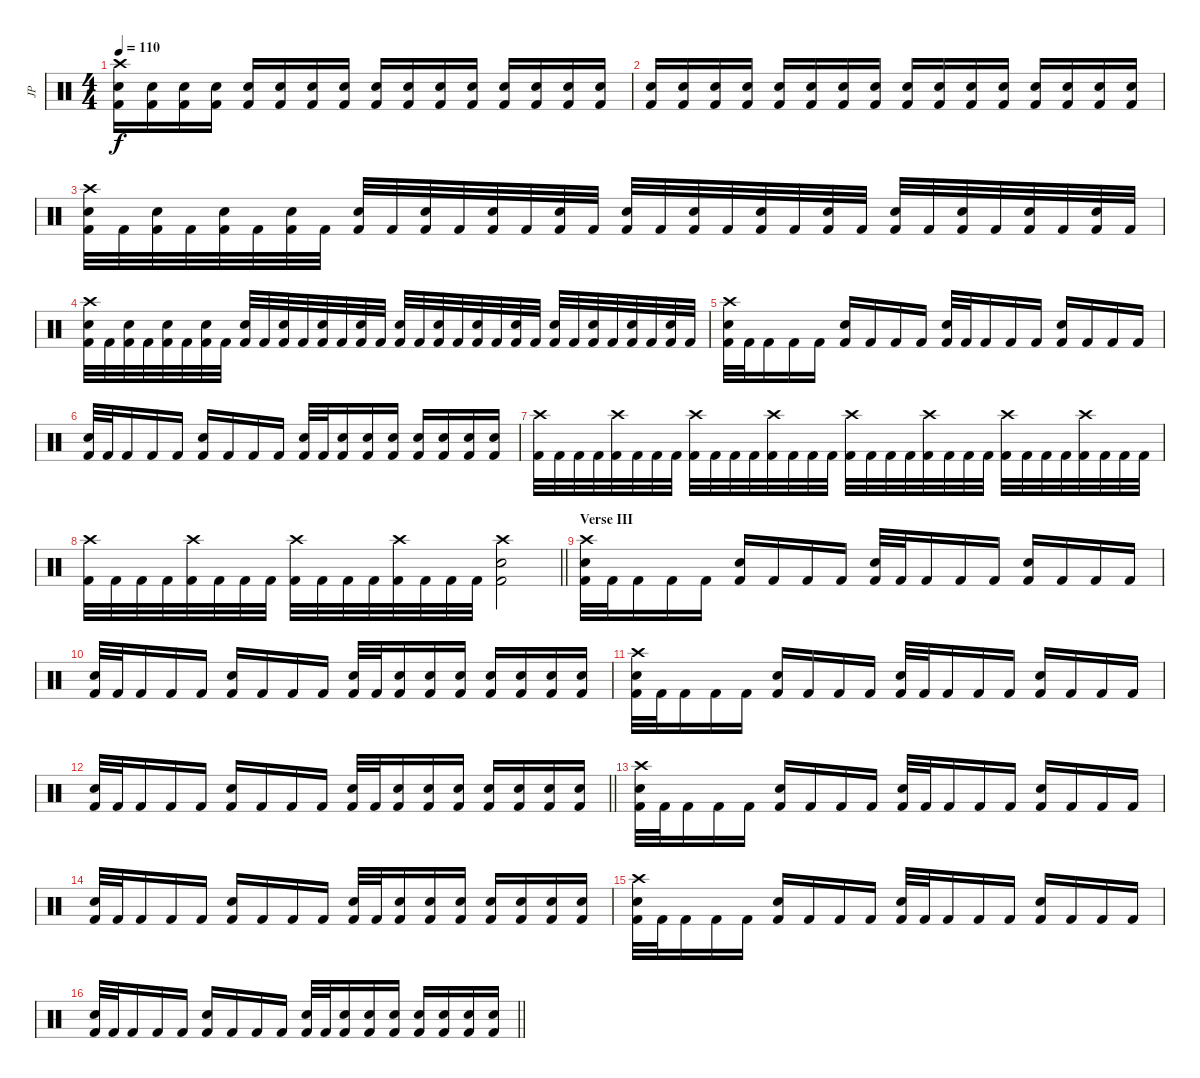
\track ("JP" "JP") {instrument percussion}
\staff {score}
\articulation defaults
\ts (4 4)
\tempo 110
\clef neutral
\ks c
("Crash high (hit)" "Electric Snare (hit)" "Kick (hit) 2").16{dy f} ("Electric Snare (hit)" "Kick (hit) 2").16 ("Electric Snare (hit)" "Kick (hit) 2").16 ("Electric Snare (hit)" "Kick (hit) 2").16 ("Electric Snare (hit)" "Kick (hit) 2").16 ("Electric Snare (hit)" "Kick (hit) 2").16 ("Electric Snare (hit)" "Kick (hit) 2").16 ("Electric Snare (hit)" "Kick (hit) 2").16 ("Electric Snare (hit)" "Kick (hit) 2").16 ("Electric Snare (hit)" "Kick (hit) 2").16 ("Electric Snare (hit)" "Kick (hit) 2").16 ("Electric Snare (hit)" "Kick (hit) 2").16 ("Electric Snare (hit)" "Kick (hit) 2").16 ("Electric Snare (hit)" "Kick (hit) 2").16 ("Electric Snare (hit)" "Kick (hit) 2").16 ("Electric Snare (hit)" "Kick (hit) 2").16 |
("Electric Snare (hit)" "Kick (hit) 2").16 ("Electric Snare (hit)" "Kick (hit) 2").16 ("Electric Snare (hit)" "Kick (hit) 2").16 ("Electric Snare (hit)" "Kick (hit) 2").16 ("Electric Snare (hit)" "Kick (hit) 2").16 ("Electric Snare (hit)" "Kick (hit) 2").16 ("Electric Snare (hit)" "Kick (hit) 2").16 ("Electric Snare (hit)" "Kick (hit) 2").16 ("Electric Snare (hit)" "Kick (hit) 2").16 ("Electric Snare (hit)" "Kick (hit) 2").16 ("Electric Snare (hit)" "Kick (hit) 2").16 ("Electric Snare (hit)" "Kick (hit) 2").16 ("Electric Snare (hit)" "Kick (hit) 2").16 ("Electric Snare (hit)" "Kick (hit) 2").16 ("Electric Snare (hit)" "Kick (hit) 2").16 ("Electric Snare (hit)" "Kick (hit) 2").16 |
("Crash high (hit)" "Electric Snare (hit)" "Kick (hit) 2").32 "Kick (hit) 2".32 ("Electric Snare (hit)" "Kick (hit) 2").32 "Kick (hit) 2".32 ("Electric Snare (hit)" "Kick (hit) 2").32 "Kick (hit) 2".32 ("Electric Snare (hit)" "Kick (hit) 2").32 "Kick (hit) 2".32 ("Electric Snare (hit)" "Kick (hit) 2").32 "Kick (hit) 2".32 ("Electric Snare (hit)" "Kick (hit) 2").32 "Kick (hit) 2".32 ("Electric Snare (hit)" "Kick (hit) 2").32 "Kick (hit) 2".32 ("Electric Snare (hit)" "Kick (hit) 2").32 "Kick (hit) 2".32 ("Electric Snare (hit)" "Kick (hit) 2").32 "Kick (hit) 2".32 ("Electric Snare (hit)" "Kick (hit) 2").32 "Kick (hit) 2".32 ("Electric Snare (hit)" "Kick (hit) 2").32 "Kick (hit) 2".32 ("Electric Snare (hit)" "Kick (hit) 2").32 "Kick (hit) 2".32 ("Electric Snare (hit)" "Kick (hit) 2").32 "Kick (hit) 2".32 ("Electric Snare (hit)" "Kick (hit) 2").32 "Kick (hit) 2".32 ("Electric Snare (hit)" "Kick (hit) 2").32 "Kick (hit) 2".32 ("Electric Snare (hit)" "Kick (hit) 2").32 "Kick (hit) 2".32 |
("Crash high (hit)" "Electric Snare (hit)" "Kick (hit) 2").32 "Kick (hit) 2".32 ("Electric Snare (hit)" "Kick (hit) 2").32 "Kick (hit) 2".32 ("Electric Snare (hit)" "Kick (hit) 2").32 "Kick (hit) 2".32 ("Electric Snare (hit)" "Kick (hit) 2").32 "Kick (hit) 2".32 ("Electric Snare (hit)" "Kick (hit) 2").32 "Kick (hit) 2".32 ("Electric Snare (hit)" "Kick (hit) 2").32 "Kick (hit) 2".32 ("Electric Snare (hit)" "Kick (hit) 2").32 "Kick (hit) 2".32 ("Electric Snare (hit)" "Kick (hit) 2").32 "Kick (hit) 2".32 ("Electric Snare (hit)" "Kick (hit) 2").32 "Kick (hit) 2".32 ("Electric Snare (hit)" "Kick (hit) 2").32 "Kick (hit) 2".32 ("Electric Snare (hit)" "Kick (hit) 2").32 "Kick (hit) 2".32 ("Electric Snare (hit)" "Kick (hit) 2").32 "Kick (hit) 2".32 ("Electric Snare (hit)" "Kick (hit) 2").32 "Kick (hit) 2".32 ("Electric Snare (hit)" "Kick (hit) 2").32 "Kick (hit) 2".32 ("Electric Snare (hit)" "Kick (hit) 2").32 "Kick (hit) 2".32 ("Electric Snare (hit)" "Kick (hit) 2").32 "Kick (hit) 2".32 |
("Crash high (hit)" "Electric Snare (hit)" "Kick (hit) 2").32 "Kick (hit) 2".32 "Kick (hit) 2".16 "Kick (hit) 2".16 "Kick (hit) 2".16 ("Electric Snare (hit)" "Kick (hit) 2").16 "Kick (hit) 2".16 "Kick (hit) 2".16 "Kick (hit) 2".16 ("Electric Snare (hit)" "Kick (hit) 2").32 "Kick (hit) 2".32 "Kick (hit) 2".16 "Kick (hit) 2".16 "Kick (hit) 2".16 ("Electric Snare (hit)" "Kick (hit) 2").16 "Kick (hit) 2".16 "Kick (hit) 2".16 "Kick (hit) 2".16 |
("Electric Snare (hit)" "Kick (hit) 2").32 "Kick (hit) 2".32 "Kick (hit) 2".16 "Kick (hit) 2".16 "Kick (hit) 2".16 ("Electric Snare (hit)" "Kick (hit) 2").16 "Kick (hit) 2".16 "Kick (hit) 2".16 "Kick (hit) 2".16 ("Electric Snare (hit)" "Kick (hit) 2").32 "Kick (hit) 2".32 ("Electric Snare (hit)" "Kick (hit) 2").16 ("Electric Snare (hit)" "Kick (hit) 2").16 ("Electric Snare (hit)" "Kick (hit) 2").16 ("Electric Snare (hit)" "Kick (hit) 2").16 ("Electric Snare (hit)" "Kick (hit) 2").16 ("Electric Snare (hit)" "Kick (hit) 2").16 ("Electric Snare (hit)" "Kick (hit) 2").16 |
("Crash high (hit)" "Kick (hit) 2").32 "Kick (hit) 2".32 "Kick (hit) 2".32 "Kick (hit) 2".32 ("Crash high (hit)" "Kick (hit) 2").32 "Kick (hit) 2".32 "Kick (hit) 2".32 "Kick (hit) 2".32 ("Crash high (hit)" "Kick (hit) 2").32 "Kick (hit) 2".32 "Kick (hit) 2".32 "Kick (hit) 2".32 ("Crash high (hit)" "Kick (hit) 2").32 "Kick (hit) 2".32 "Kick (hit) 2".32 "Kick (hit) 2".32 ("Crash high (hit)" "Kick (hit) 2").32 "Kick (hit) 2".32 "Kick (hit) 2".32 "Kick (hit) 2".32 ("Crash high (hit)" "Kick (hit) 2").32 "Kick (hit) 2".32 "Kick (hit) 2".32 "Kick (hit) 2".32 ("Crash high (hit)" "Kick (hit) 2").32 "Kick (hit) 2".32 "Kick (hit) 2".32 "Kick (hit) 2".32 ("Crash high (hit)" "Kick (hit) 2").32 "Kick (hit) 2".32 "Kick (hit) 2".32 "Kick (hit) 2".32 |
\barLineRight lightlight
("Crash high (hit)" "Kick (hit) 2").32 "Kick (hit) 2".32 "Kick (hit) 2".32 "Kick (hit) 2".32 ("Crash high (hit)" "Kick (hit) 2").32 "Kick (hit) 2".32 "Kick (hit) 2".32 "Kick (hit) 2".32 ("Crash high (hit)" "Kick (hit) 2").32 "Kick (hit) 2".32 "Kick (hit) 2".32 "Kick (hit) 2".32 ("Crash high (hit)" "Kick (hit) 2").32 "Kick (hit) 2".32 "Kick (hit) 2".32 "Kick (hit) 2".32 ("Crash high (hit)" "Electric Snare (hit)" "Kick (hit) 2").2 |
\section ("" "Verse III")
("Crash high (hit)" "Electric Snare (hit)" "Kick (hit) 2").32 "Kick (hit) 2".32 "Kick (hit) 2".16 "Kick (hit) 2".16 "Kick (hit) 2".16 ("Electric Snare (hit)" "Kick (hit) 2").16 "Kick (hit) 2".16 "Kick (hit) 2".16 "Kick (hit) 2".16 ("Electric Snare (hit)" "Kick (hit) 2").32 "Kick (hit) 2".32 "Kick (hit) 2".16 "Kick (hit) 2".16 "Kick (hit) 2".16 ("Electric Snare (hit)" "Kick (hit) 2").16 "Kick (hit) 2".16 "Kick (hit) 2".16 "Kick (hit) 2".16 |
("Electric Snare (hit)" "Kick (hit) 2").32 "Kick (hit) 2".32 "Kick (hit) 2".16 "Kick (hit) 2".16 "Kick (hit) 2".16 ("Electric Snare (hit)" "Kick (hit) 2").16 "Kick (hit) 2".16 "Kick (hit) 2".16 "Kick (hit) 2".16 ("Electric Snare (hit)" "Kick (hit) 2").32 "Kick (hit) 2".32 ("Electric Snare (hit)" "Kick (hit) 2").16 ("Electric Snare (hit)" "Kick (hit) 2").16 ("Electric Snare (hit)" "Kick (hit) 2").16 ("Electric Snare (hit)" "Kick (hit) 2").16 ("Electric Snare (hit)" "Kick (hit) 2").16 ("Electric Snare (hit)" "Kick (hit) 2").16 ("Electric Snare (hit)" "Kick (hit) 2").16 |
("Crash high (hit)" "Electric Snare (hit)" "Kick (hit) 2").32 "Kick (hit) 2".32 "Kick (hit) 2".16 "Kick (hit) 2".16 "Kick (hit) 2".16 ("Electric Snare (hit)" "Kick (hit) 2").16 "Kick (hit) 2".16 "Kick (hit) 2".16 "Kick (hit) 2".16 ("Electric Snare (hit)" "Kick (hit) 2").32 "Kick (hit) 2".32 "Kick (hit) 2".16 "Kick (hit) 2".16 "Kick (hit) 2".16 ("Electric Snare (hit)" "Kick (hit) 2").16 "Kick (hit) 2".16 "Kick (hit) 2".16 "Kick (hit) 2".16 |
\barLineRight lightlight
("Electric Snare (hit)" "Kick (hit) 2").32 "Kick (hit) 2".32 "Kick (hit) 2".16 "Kick (hit) 2".16 "Kick (hit) 2".16 ("Electric Snare (hit)" "Kick (hit) 2").16 "Kick (hit) 2".16 "Kick (hit) 2".16 "Kick (hit) 2".16 ("Electric Snare (hit)" "Kick (hit) 2").32 "Kick (hit) 2".32 ("Electric Snare (hit)" "Kick (hit) 2").16 ("Electric Snare (hit)" "Kick (hit) 2").16 ("Electric Snare (hit)" "Kick (hit) 2").16 ("Electric Snare (hit)" "Kick (hit) 2").16 ("Electric Snare (hit)" "Kick (hit) 2").16 ("Electric Snare (hit)" "Kick (hit) 2").16 ("Electric Snare (hit)" "Kick (hit) 2").16 |
("Crash high (hit)" "Electric Snare (hit)" "Kick (hit) 2").32 "Kick (hit) 2".32 "Kick (hit) 2".16 "Kick (hit) 2".16 "Kick (hit) 2".16 ("Electric Snare (hit)" "Kick (hit) 2").16 "Kick (hit) 2".16 "Kick (hit) 2".16 "Kick (hit) 2".16 ("Electric Snare (hit)" "Kick (hit) 2").32 "Kick (hit) 2".32 "Kick (hit) 2".16 "Kick (hit) 2".16 "Kick (hit) 2".16 ("Electric Snare (hit)" "Kick (hit) 2").16 "Kick (hit) 2".16 "Kick (hit) 2".16 "Kick (hit) 2".16 |
("Electric Snare (hit)" "Kick (hit) 2").32 "Kick (hit) 2".32 "Kick (hit) 2".16 "Kick (hit) 2".16 "Kick (hit) 2".16 ("Electric Snare (hit)" "Kick (hit) 2").16 "Kick (hit) 2".16 "Kick (hit) 2".16 "Kick (hit) 2".16 ("Electric Snare (hit)" "Kick (hit) 2").32 "Kick (hit) 2".32 ("Electric Snare (hit)" "Kick (hit) 2").16 ("Electric Snare (hit)" "Kick (hit) 2").16 ("Electric Snare (hit)" "Kick (hit) 2").16 ("Electric Snare (hit)" "Kick (hit) 2").16 ("Electric Snare (hit)" "Kick (hit) 2").16 ("Electric Snare (hit)" "Kick (hit) 2").16 ("Electric Snare (hit)" "Kick (hit) 2").16 |
("Crash high (hit)" "Electric Snare (hit)" "Kick (hit) 2").32 "Kick (hit) 2".32 "Kick (hit) 2".16 "Kick (hit) 2".16 "Kick (hit) 2".16 ("Electric Snare (hit)" "Kick (hit) 2").16 "Kick (hit) 2".16 "Kick (hit) 2".16 "Kick (hit) 2".16 ("Electric Snare (hit)" "Kick (hit) 2").32 "Kick (hit) 2".32 "Kick (hit) 2".16 "Kick (hit) 2".16 "Kick (hit) 2".16 ("Electric Snare (hit)" "Kick (hit) 2").16 "Kick (hit) 2".16 "Kick (hit) 2".16 "Kick (hit) 2".16 |
\barLineRight lightlight
("Electric Snare (hit)" "Kick (hit) 2").32 "Kick (hit) 2".32 "Kick (hit) 2".16 "Kick (hit) 2".16 "Kick (hit) 2".16 ("Electric Snare (hit)" "Kick (hit) 2").16 "Kick (hit) 2".16 "Kick (hit) 2".16 "Kick (hit) 2".16 ("Electric Snare (hit)" "Kick (hit) 2").32 "Kick (hit) 2".32 ("Electric Snare (hit)" "Kick (hit) 2").16 ("Electric Snare (hit)" "Kick (hit) 2").16 ("Electric Snare (hit)" "Kick (hit) 2").16 ("Electric Snare (hit)" "Kick (hit) 2").16 ("Electric Snare (hit)" "Kick (hit) 2").16 ("Electric Snare (hit)" "Kick (hit) 2").16 ("Electric Snare (hit)" "Kick (hit) 2").16
